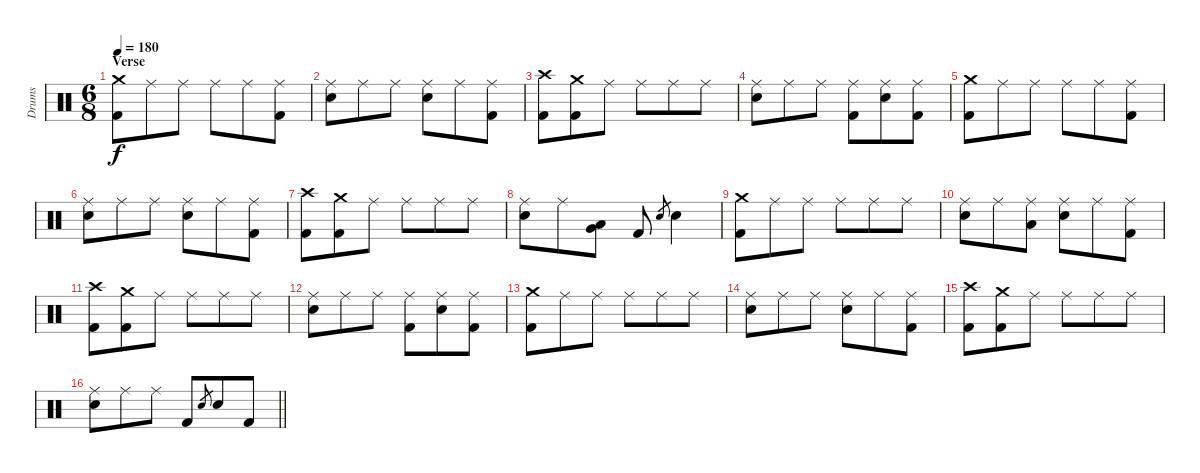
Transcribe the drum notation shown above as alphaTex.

\track ("Drums" "Drums") {instrument percussion}
\staff {score}
\articulation defaults
\ts (6 8)
\section ("" "Verse")
\tempo 180
\clef neutral
\ks c
("Crash medium (hit)" "Kick (hit) 2").8{dy f} "Ride (middle)".8 "Ride (middle)".8 "Ride (middle)".8 "Ride (middle)".8 ("Ride (middle)" "Kick (hit) 2").8 |
("Ride (middle)" "Electric Snare (hit)").8 "Ride (middle)".8 "Ride (middle)".8 ("Ride (middle)" "Electric Snare (hit)").8 "Ride (middle)".8 ("Ride (middle)" "Kick (hit) 2").8 |
("Crash high (hit)" "Kick (hit) 2").8 ("Crash medium (hit)" "Kick (hit) 2").8 "Ride (middle)".8 "Ride (middle)".8 "Ride (middle)".8 "Ride (middle)".8 |
("Ride (middle)" "Electric Snare (hit)").8 "Ride (middle)".8 "Ride (middle)".8 ("Ride (middle)" "Kick (hit) 2").8 ("Ride (middle)" "Electric Snare (hit)").8 ("Ride (middle)" "Kick (hit) 2").8 |
("Crash medium (hit)" "Kick (hit) 2").8 "Ride (middle)".8 "Ride (middle)".8 "Ride (middle)".8 "Ride (middle)".8 ("Ride (middle)" "Kick (hit) 2").8 |
("Ride (middle)" "Electric Snare (hit)").8 "Ride (middle)".8 "Ride (middle)".8 ("Ride (middle)" "Electric Snare (hit)").8 "Ride (middle)".8 ("Ride (middle)" "Kick (hit) 2").8 |
("Crash high (hit)" "Kick (hit) 2").8 ("Crash medium (hit)" "Kick (hit) 2").8 "Ride (middle)".8 "Ride (middle)".8 "Ride (middle)".8 "Ride (middle)".8 |
("Ride (middle)" "Electric Snare (hit)").8 "Ride (middle)".8 ("Very Low Tom (hit)" "Low Floor Tom (hit)").8 "Kick (hit) 2".8 "Electric Snare (hit)".8{gr} "Electric Snare (hit)".4 |
("Crash medium (hit)" "Kick (hit) 2").8 "Ride (middle)".8 "Ride (middle)".8 "Ride (middle)".8 "Ride (middle)".8 "Ride (middle)".8 |
("Ride (middle)" "Electric Snare (hit)").8 "Ride (middle)".8 ("Ride (middle)" "Low Tom (hit)").8 ("Ride (middle)" "Electric Snare (hit)").8 "Ride (middle)".8 ("Ride (middle)" "Kick (hit) 2").8 |
("Crash high (hit)" "Kick (hit) 2").8 ("Crash medium (hit)" "Kick (hit) 2").8 "Ride (middle)".8 "Ride (middle)".8 "Ride (middle)".8 "Ride (middle)".8 |
("Ride (middle)" "Electric Snare (hit)").8 "Ride (middle)".8 "Ride (middle)".8 ("Ride (middle)" "Kick (hit) 2").8 ("Ride (middle)" "Electric Snare (hit)").8 ("Ride (middle)" "Kick (hit) 2").8 |
("Crash medium (hit)" "Kick (hit) 2").8 "Ride (middle)".8 "Ride (middle)".8 "Ride (middle)".8 "Ride (middle)".8 "Ride (middle)".8 |
("Ride (middle)" "Electric Snare (hit)").8 "Ride (middle)".8 "Ride (middle)".8 ("Ride (middle)" "Electric Snare (hit)").8 "Ride (middle)".8 ("Ride (middle)" "Kick (hit) 2").8 |
("Crash high (hit)" "Kick (hit) 2").8 ("Crash medium (hit)" "Kick (hit) 2").8 "Ride (middle)".8 "Ride (middle)".8 "Ride (middle)".8 "Ride (middle)".8 |
\barLineRight lightlight
("Ride (middle)" "Electric Snare (hit)").8 "Ride (middle)".8 "Ride (middle)".8 "Kick (hit) 2".8 "Electric Snare (hit)".8{gr} "Electric Snare (hit)".8 "Kick (hit) 2".8
